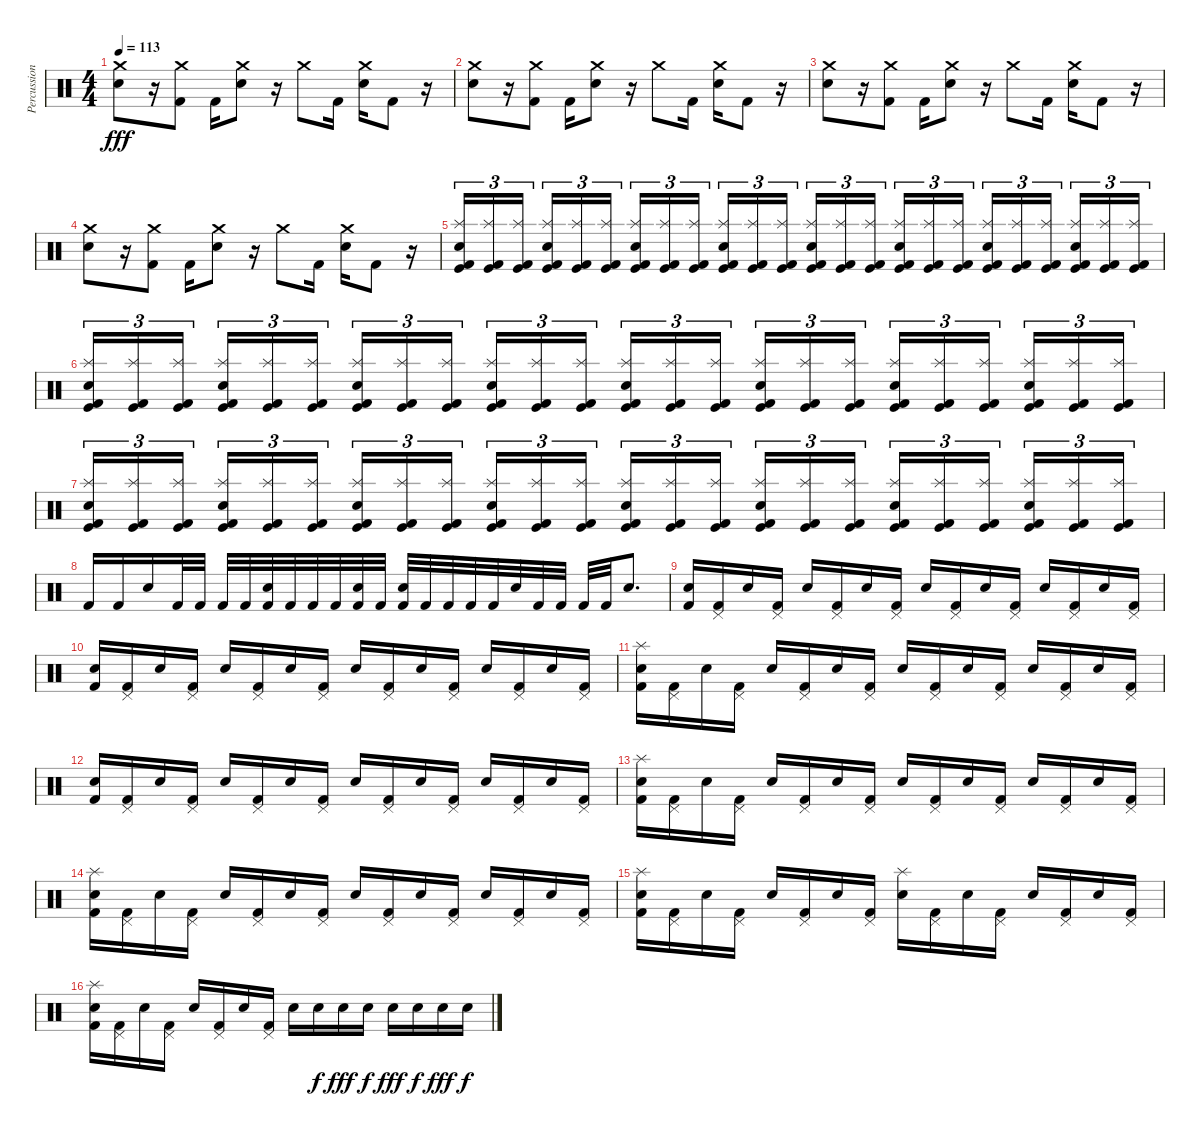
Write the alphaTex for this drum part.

\track ("Percussion" "Percussion") {instrument percussion}
\staff {score}
\articulation defaults
\ts (4 4)
\tempo 113
\clef neutral
\ks c
("Crash medium (hit)" "Electric Snare (hit)").8{dy fff} r.16 ("Crash medium (hit)" "Kick (hit) 2").8 "Kick (hit) 2".16 ("Crash medium (hit)" "Electric Snare (hit)").8 r.16 "Crash medium (hit)".8 "Kick (hit) 2".16 ("Crash medium (hit)" "Electric Snare (hit)").16 "Kick (hit) 2".8 r.16 |
("Crash medium (hit)" "Electric Snare (hit)").8 r.16 ("Crash medium (hit)" "Kick (hit) 2").8 "Kick (hit) 2".16 ("Crash medium (hit)" "Electric Snare (hit)").8 r.16 "Crash medium (hit)".8 "Kick (hit) 2".16 ("Crash medium (hit)" "Electric Snare (hit)").16 "Kick (hit) 2".8 r.16 |
("Crash medium (hit)" "Electric Snare (hit)").8 r.16 ("Crash medium (hit)" "Kick (hit) 2").8 "Kick (hit) 2".16 ("Crash medium (hit)" "Electric Snare (hit)").8 r.16 "Crash medium (hit)".8 "Kick (hit) 2".16 ("Crash medium (hit)" "Electric Snare (hit)").16 "Kick (hit) 2".8 r.16 |
("Crash medium (hit)" "Electric Snare (hit)").8 r.16 ("Crash medium (hit)" "Kick (hit) 2").8 "Kick (hit) 2".16 ("Crash medium (hit)" "Electric Snare (hit)").8 r.16 "Crash medium (hit)".8 "Kick (hit) 2".16 ("Crash medium (hit)" "Electric Snare (hit)").16 "Kick (hit) 2".8 r.16 |
("Splash (hit)" "Electric Snare (hit)" "Kick (hit) 2" "Kick (hit)").16{tu (3 2)} ("Splash (hit)" "Kick (hit) 2" "Kick (hit)").16{tu (3 2)} ("Splash (hit)" "Kick (hit) 2" "Kick (hit)").16{tu (3 2) beam splitsecondary} ("Splash (hit)" "Electric Snare (hit)" "Kick (hit) 2" "Kick (hit)").16{tu (3 2)} ("Splash (hit)" "Kick (hit) 2" "Kick (hit)").16{tu (3 2)} ("Splash (hit)" "Kick (hit) 2" "Kick (hit)").16{tu (3 2)} ("Splash (hit)" "Electric Snare (hit)" "Kick (hit) 2" "Kick (hit)").16{tu (3 2)} ("Splash (hit)" "Kick (hit) 2" "Kick (hit)").16{tu (3 2)} ("Splash (hit)" "Kick (hit) 2" "Kick (hit)").16{tu (3 2) beam splitsecondary} ("Splash (hit)" "Electric Snare (hit)" "Kick (hit) 2" "Kick (hit)").16{tu (3 2)} ("Splash (hit)" "Kick (hit) 2" "Kick (hit)").16{tu (3 2)} ("Splash (hit)" "Kick (hit) 2" "Kick (hit)").16{tu (3 2)} ("Splash (hit)" "Electric Snare (hit)" "Kick (hit) 2" "Kick (hit)").16{tu (3 2)} ("Splash (hit)" "Kick (hit) 2" "Kick (hit)").16{tu (3 2)} ("Splash (hit)" "Kick (hit) 2" "Kick (hit)").16{tu (3 2) beam splitsecondary} ("Splash (hit)" "Electric Snare (hit)" "Kick (hit) 2" "Kick (hit)").16{tu (3 2)} ("Splash (hit)" "Kick (hit) 2" "Kick (hit)").16{tu (3 2)} ("Splash (hit)" "Kick (hit) 2" "Kick (hit)").16{tu (3 2)} ("Splash (hit)" "Electric Snare (hit)" "Kick (hit) 2" "Kick (hit)").16{tu (3 2)} ("Splash (hit)" "Kick (hit) 2" "Kick (hit)").16{tu (3 2)} ("Splash (hit)" "Kick (hit) 2" "Kick (hit)").16{tu (3 2) beam splitsecondary} ("Splash (hit)" "Electric Snare (hit)" "Kick (hit) 2" "Kick (hit)").16{tu (3 2)} ("Splash (hit)" "Kick (hit) 2" "Kick (hit)").16{tu (3 2)} ("Splash (hit)" "Kick (hit) 2" "Kick (hit)").16{tu (3 2)} |
("Splash (hit)" "Electric Snare (hit)" "Kick (hit) 2" "Kick (hit)").16{tu (3 2)} ("Splash (hit)" "Kick (hit) 2" "Kick (hit)").16{tu (3 2)} ("Splash (hit)" "Kick (hit) 2" "Kick (hit)").16{tu (3 2) beam splitsecondary} ("Splash (hit)" "Electric Snare (hit)" "Kick (hit) 2" "Kick (hit)").16{tu (3 2)} ("Splash (hit)" "Kick (hit) 2" "Kick (hit)").16{tu (3 2)} ("Splash (hit)" "Kick (hit) 2" "Kick (hit)").16{tu (3 2)} ("Splash (hit)" "Electric Snare (hit)" "Kick (hit) 2" "Kick (hit)").16{tu (3 2)} ("Splash (hit)" "Kick (hit) 2" "Kick (hit)").16{tu (3 2)} ("Splash (hit)" "Kick (hit) 2" "Kick (hit)").16{tu (3 2) beam splitsecondary} ("Splash (hit)" "Electric Snare (hit)" "Kick (hit) 2" "Kick (hit)").16{tu (3 2)} ("Splash (hit)" "Kick (hit) 2" "Kick (hit)").16{tu (3 2)} ("Splash (hit)" "Kick (hit) 2" "Kick (hit)").16{tu (3 2)} ("Splash (hit)" "Electric Snare (hit)" "Kick (hit) 2" "Kick (hit)").16{tu (3 2)} ("Splash (hit)" "Kick (hit) 2" "Kick (hit)").16{tu (3 2)} ("Splash (hit)" "Kick (hit) 2" "Kick (hit)").16{tu (3 2) beam splitsecondary} ("Splash (hit)" "Electric Snare (hit)" "Kick (hit) 2" "Kick (hit)").16{tu (3 2)} ("Splash (hit)" "Kick (hit) 2" "Kick (hit)").16{tu (3 2)} ("Splash (hit)" "Kick (hit) 2" "Kick (hit)").16{tu (3 2)} ("Splash (hit)" "Electric Snare (hit)" "Kick (hit) 2" "Kick (hit)").16{tu (3 2)} ("Splash (hit)" "Kick (hit) 2" "Kick (hit)").16{tu (3 2)} ("Splash (hit)" "Kick (hit) 2" "Kick (hit)").16{tu (3 2) beam splitsecondary} ("Splash (hit)" "Electric Snare (hit)" "Kick (hit) 2" "Kick (hit)").16{tu (3 2)} ("Splash (hit)" "Kick (hit) 2" "Kick (hit)").16{tu (3 2)} ("Splash (hit)" "Kick (hit) 2" "Kick (hit)").16{tu (3 2)} |
("Splash (hit)" "Electric Snare (hit)" "Kick (hit) 2" "Kick (hit)").16{tu (3 2)} ("Splash (hit)" "Kick (hit) 2" "Kick (hit)").16{tu (3 2)} ("Splash (hit)" "Kick (hit) 2" "Kick (hit)").16{tu (3 2) beam splitsecondary} ("Splash (hit)" "Electric Snare (hit)" "Kick (hit) 2" "Kick (hit)").16{tu (3 2)} ("Splash (hit)" "Kick (hit) 2" "Kick (hit)").16{tu (3 2)} ("Splash (hit)" "Kick (hit) 2" "Kick (hit)").16{tu (3 2)} ("Splash (hit)" "Electric Snare (hit)" "Kick (hit) 2" "Kick (hit)").16{tu (3 2)} ("Splash (hit)" "Kick (hit) 2" "Kick (hit)").16{tu (3 2)} ("Splash (hit)" "Kick (hit) 2" "Kick (hit)").16{tu (3 2) beam splitsecondary} ("Splash (hit)" "Electric Snare (hit)" "Kick (hit) 2" "Kick (hit)").16{tu (3 2)} ("Splash (hit)" "Kick (hit) 2" "Kick (hit)").16{tu (3 2)} ("Splash (hit)" "Kick (hit) 2" "Kick (hit)").16{tu (3 2)} ("Splash (hit)" "Electric Snare (hit)" "Kick (hit) 2" "Kick (hit)").16{tu (3 2)} ("Splash (hit)" "Kick (hit) 2" "Kick (hit)").16{tu (3 2)} ("Splash (hit)" "Kick (hit) 2" "Kick (hit)").16{tu (3 2) beam splitsecondary} ("Splash (hit)" "Electric Snare (hit)" "Kick (hit) 2" "Kick (hit)").16{tu (3 2)} ("Splash (hit)" "Kick (hit) 2" "Kick (hit)").16{tu (3 2)} ("Splash (hit)" "Kick (hit) 2" "Kick (hit)").16{tu (3 2)} ("Splash (hit)" "Electric Snare (hit)" "Kick (hit) 2" "Kick (hit)").16{tu (3 2)} ("Splash (hit)" "Kick (hit) 2" "Kick (hit)").16{tu (3 2)} ("Splash (hit)" "Kick (hit) 2" "Kick (hit)").16{tu (3 2) beam splitsecondary} ("Splash (hit)" "Electric Snare (hit)" "Kick (hit) 2" "Kick (hit)").16{tu (3 2)} ("Splash (hit)" "Kick (hit) 2" "Kick (hit)").16{tu (3 2)} ("Splash (hit)" "Kick (hit) 2" "Kick (hit)").16{tu (3 2)} |
"Kick (hit) 2".16 "Kick (hit) 2".16 "Electric Snare (hit)".16 "Kick (hit) 2".32 "Kick (hit) 2".32 "Kick (hit) 2".32 "Kick (hit) 2".32 ("Electric Snare (hit)" "Kick (hit) 2").32 "Kick (hit) 2".32 "Kick (hit) 2".32 "Kick (hit) 2".32 ("Electric Snare (hit)" "Kick (hit) 2").32 "Kick (hit) 2".32 ("Electric Snare (hit)" "Kick (hit) 2").32 "Kick (hit) 2".32 "Kick (hit) 2".32 "Kick (hit) 2".32 "Kick (hit) 2".32 "Electric Snare (hit)".32 "Kick (hit) 2".32 "Kick (hit) 2".32 "Kick (hit) 2".32 "Kick (hit) 2".32 "Electric Snare (hit)".8{d} |
("Electric Snare (hit)" "Kick (hit) 2").16 ("Pedal Hi-Hat (hit)" "Kick (hit) 2").16 "Electric Snare (hit)".16 ("Pedal Hi-Hat (hit)" "Kick (hit) 2").16 "Electric Snare (hit)".16 ("Pedal Hi-Hat (hit)" "Kick (hit) 2").16 "Electric Snare (hit)".16 ("Pedal Hi-Hat (hit)" "Kick (hit) 2").16 "Electric Snare (hit)".16 ("Pedal Hi-Hat (hit)" "Kick (hit) 2").16 "Electric Snare (hit)".16 ("Pedal Hi-Hat (hit)" "Kick (hit) 2").16 "Electric Snare (hit)".16 ("Pedal Hi-Hat (hit)" "Kick (hit) 2").16 "Electric Snare (hit)".16 ("Pedal Hi-Hat (hit)" "Kick (hit) 2").16 |
("Electric Snare (hit)" "Kick (hit) 2").16 ("Pedal Hi-Hat (hit)" "Kick (hit) 2").16 "Electric Snare (hit)".16 ("Pedal Hi-Hat (hit)" "Kick (hit) 2").16 "Electric Snare (hit)".16 ("Pedal Hi-Hat (hit)" "Kick (hit) 2").16 "Electric Snare (hit)".16 ("Pedal Hi-Hat (hit)" "Kick (hit) 2").16 "Electric Snare (hit)".16 ("Pedal Hi-Hat (hit)" "Kick (hit) 2").16 "Electric Snare (hit)".16 ("Pedal Hi-Hat (hit)" "Kick (hit) 2").16 "Electric Snare (hit)".16 ("Pedal Hi-Hat (hit)" "Kick (hit) 2").16 "Electric Snare (hit)".16 ("Pedal Hi-Hat (hit)" "Kick (hit) 2").16 |
("Splash (hit)" "Electric Snare (hit)" "Kick (hit) 2").16 ("Pedal Hi-Hat (hit)" "Kick (hit) 2").16 "Electric Snare (hit)".16 ("Pedal Hi-Hat (hit)" "Kick (hit) 2").16 "Electric Snare (hit)".16 ("Pedal Hi-Hat (hit)" "Kick (hit) 2").16 "Electric Snare (hit)".16 ("Pedal Hi-Hat (hit)" "Kick (hit) 2").16 "Electric Snare (hit)".16 ("Pedal Hi-Hat (hit)" "Kick (hit) 2").16 "Electric Snare (hit)".16 ("Pedal Hi-Hat (hit)" "Kick (hit) 2").16 "Electric Snare (hit)".16 ("Pedal Hi-Hat (hit)" "Kick (hit) 2").16 "Electric Snare (hit)".16 ("Pedal Hi-Hat (hit)" "Kick (hit) 2").16 |
("Electric Snare (hit)" "Kick (hit) 2").16 ("Pedal Hi-Hat (hit)" "Kick (hit) 2").16 "Electric Snare (hit)".16 ("Pedal Hi-Hat (hit)" "Kick (hit) 2").16 "Electric Snare (hit)".16 ("Pedal Hi-Hat (hit)" "Kick (hit) 2").16 "Electric Snare (hit)".16 ("Pedal Hi-Hat (hit)" "Kick (hit) 2").16 "Electric Snare (hit)".16 ("Pedal Hi-Hat (hit)" "Kick (hit) 2").16 "Electric Snare (hit)".16 ("Pedal Hi-Hat (hit)" "Kick (hit) 2").16 "Electric Snare (hit)".16 ("Pedal Hi-Hat (hit)" "Kick (hit) 2").16 "Electric Snare (hit)".16 ("Pedal Hi-Hat (hit)" "Kick (hit) 2").16 |
("Splash (hit)" "Electric Snare (hit)" "Kick (hit) 2").16 ("Pedal Hi-Hat (hit)" "Kick (hit) 2").16 "Electric Snare (hit)".16 ("Pedal Hi-Hat (hit)" "Kick (hit) 2").16 "Electric Snare (hit)".16 ("Pedal Hi-Hat (hit)" "Kick (hit) 2").16 "Electric Snare (hit)".16 ("Pedal Hi-Hat (hit)" "Kick (hit) 2").16 "Electric Snare (hit)".16 ("Pedal Hi-Hat (hit)" "Kick (hit) 2").16 "Electric Snare (hit)".16 ("Pedal Hi-Hat (hit)" "Kick (hit) 2").16 "Electric Snare (hit)".16 ("Pedal Hi-Hat (hit)" "Kick (hit) 2").16 "Electric Snare (hit)".16 ("Pedal Hi-Hat (hit)" "Kick (hit) 2").16 |
("Splash (hit)" "Electric Snare (hit)" "Kick (hit) 2").16 ("Pedal Hi-Hat (hit)" "Kick (hit) 2").16 "Electric Snare (hit)".16 ("Pedal Hi-Hat (hit)" "Kick (hit) 2").16 "Electric Snare (hit)".16 ("Pedal Hi-Hat (hit)" "Kick (hit) 2").16 "Electric Snare (hit)".16 ("Pedal Hi-Hat (hit)" "Kick (hit) 2").16 "Electric Snare (hit)".16 ("Pedal Hi-Hat (hit)" "Kick (hit) 2").16 "Electric Snare (hit)".16 ("Pedal Hi-Hat (hit)" "Kick (hit) 2").16 "Electric Snare (hit)".16 ("Pedal Hi-Hat (hit)" "Kick (hit) 2").16 "Electric Snare (hit)".16 ("Pedal Hi-Hat (hit)" "Kick (hit) 2").16 |
("Splash (hit)" "Electric Snare (hit)" "Kick (hit) 2").16 ("Pedal Hi-Hat (hit)" "Kick (hit) 2").16 "Electric Snare (hit)".16 ("Pedal Hi-Hat (hit)" "Kick (hit) 2").16 "Electric Snare (hit)".16 ("Pedal Hi-Hat (hit)" "Kick (hit) 2").16 "Electric Snare (hit)".16 ("Pedal Hi-Hat (hit)" "Kick (hit) 2").16 ("Splash (hit)" "Electric Snare (hit)").16 ("Pedal Hi-Hat (hit)" "Kick (hit) 2").16 "Electric Snare (hit)".16 ("Pedal Hi-Hat (hit)" "Kick (hit) 2").16 "Electric Snare (hit)".16 ("Pedal Hi-Hat (hit)" "Kick (hit) 2").16 "Electric Snare (hit)".16 ("Pedal Hi-Hat (hit)" "Kick (hit) 2").16 |
("Splash (hit)" "Electric Snare (hit)" "Kick (hit) 2").16 ("Pedal Hi-Hat (hit)" "Kick (hit) 2").16 "Electric Snare (hit)".16 ("Pedal Hi-Hat (hit)" "Kick (hit) 2").16 "Electric Snare (hit)".16 ("Pedal Hi-Hat (hit)" "Kick (hit) 2").16 "Electric Snare (hit)".16 ("Pedal Hi-Hat (hit)" "Kick (hit) 2").16 "Electric Snare (hit)".16 "Electric Snare (hit)".16{dy f} "Electric Snare (hit)".16{dy fff} "Electric Snare (hit)".16{dy f} "Electric Snare (hit)".16{dy fff} "Electric Snare (hit)".16{dy f} "Electric Snare (hit)".16{dy fff} "Electric Snare (hit)".16{dy f}
